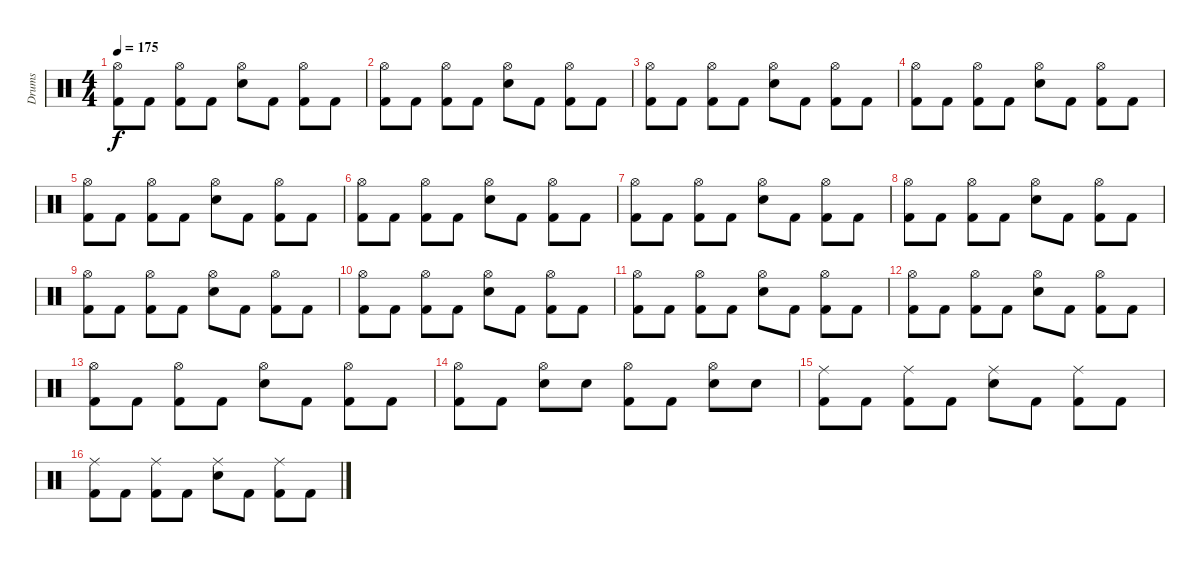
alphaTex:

\track ("Drums" "Drums") {instrument percussion}
\staff {score}
\articulation defaults
\ts (4 4)
\tempo 175
\clef neutral
\ks c
("Hi-Hat (open)" "Kick (hit) 2").8{dy f} "Kick (hit) 2".8 ("Hi-Hat (open)" "Kick (hit) 2").8 "Kick (hit) 2".8 ("Hi-Hat (open)" "Electric Snare (hit)").8 "Kick (hit) 2".8 ("Hi-Hat (open)" "Kick (hit) 2").8 "Kick (hit) 2".8 |
("Hi-Hat (open)" "Kick (hit) 2").8 "Kick (hit) 2".8 ("Hi-Hat (open)" "Kick (hit) 2").8 "Kick (hit) 2".8 ("Hi-Hat (open)" "Electric Snare (hit)").8 "Kick (hit) 2".8 ("Hi-Hat (open)" "Kick (hit) 2").8 "Kick (hit) 2".8 |
("Hi-Hat (open)" "Kick (hit) 2").8 "Kick (hit) 2".8 ("Hi-Hat (open)" "Kick (hit) 2").8 "Kick (hit) 2".8 ("Hi-Hat (open)" "Electric Snare (hit)").8 "Kick (hit) 2".8 ("Hi-Hat (open)" "Kick (hit) 2").8 "Kick (hit) 2".8 |
("Hi-Hat (open)" "Kick (hit) 2").8 "Kick (hit) 2".8 ("Hi-Hat (open)" "Kick (hit) 2").8 "Kick (hit) 2".8 ("Hi-Hat (open)" "Electric Snare (hit)").8 "Kick (hit) 2".8 ("Hi-Hat (open)" "Kick (hit) 2").8 "Kick (hit) 2".8 |
("Hi-Hat (open)" "Kick (hit) 2").8 "Kick (hit) 2".8 ("Hi-Hat (open)" "Kick (hit) 2").8 "Kick (hit) 2".8 ("Hi-Hat (open)" "Electric Snare (hit)").8 "Kick (hit) 2".8 ("Hi-Hat (open)" "Kick (hit) 2").8 "Kick (hit) 2".8 |
("Hi-Hat (open)" "Kick (hit) 2").8 "Kick (hit) 2".8 ("Hi-Hat (open)" "Kick (hit) 2").8 "Kick (hit) 2".8 ("Hi-Hat (open)" "Electric Snare (hit)").8 "Kick (hit) 2".8 ("Hi-Hat (open)" "Kick (hit) 2").8 "Kick (hit) 2".8 |
("Hi-Hat (open)" "Kick (hit) 2").8 "Kick (hit) 2".8 ("Hi-Hat (open)" "Kick (hit) 2").8 "Kick (hit) 2".8 ("Hi-Hat (open)" "Electric Snare (hit)").8 "Kick (hit) 2".8 ("Hi-Hat (open)" "Kick (hit) 2").8 "Kick (hit) 2".8 |
("Hi-Hat (open)" "Kick (hit) 2").8 "Kick (hit) 2".8 ("Hi-Hat (open)" "Kick (hit) 2").8 "Kick (hit) 2".8 ("Hi-Hat (open)" "Electric Snare (hit)").8 "Kick (hit) 2".8 ("Hi-Hat (open)" "Kick (hit) 2").8 "Kick (hit) 2".8 |
("Hi-Hat (open)" "Kick (hit) 2").8 "Kick (hit) 2".8 ("Hi-Hat (open)" "Kick (hit) 2").8 "Kick (hit) 2".8 ("Hi-Hat (open)" "Electric Snare (hit)").8 "Kick (hit) 2".8 ("Hi-Hat (open)" "Kick (hit) 2").8 "Kick (hit) 2".8 |
("Hi-Hat (open)" "Kick (hit) 2").8 "Kick (hit) 2".8 ("Hi-Hat (open)" "Kick (hit) 2").8 "Kick (hit) 2".8 ("Hi-Hat (open)" "Electric Snare (hit)").8 "Kick (hit) 2".8 ("Hi-Hat (open)" "Kick (hit) 2").8 "Kick (hit) 2".8 |
("Hi-Hat (open)" "Kick (hit) 2").8 "Kick (hit) 2".8 ("Hi-Hat (open)" "Kick (hit) 2").8 "Kick (hit) 2".8 ("Hi-Hat (open)" "Electric Snare (hit)").8 "Kick (hit) 2".8 ("Hi-Hat (open)" "Kick (hit) 2").8 "Kick (hit) 2".8 |
("Hi-Hat (open)" "Kick (hit) 2").8 "Kick (hit) 2".8 ("Hi-Hat (open)" "Kick (hit) 2").8 "Kick (hit) 2".8 ("Hi-Hat (open)" "Electric Snare (hit)").8 "Kick (hit) 2".8 ("Hi-Hat (open)" "Kick (hit) 2").8 "Kick (hit) 2".8 |
("Hi-Hat (open)" "Kick (hit) 2").8 "Kick (hit) 2".8 ("Hi-Hat (open)" "Kick (hit) 2").8 "Kick (hit) 2".8 ("Hi-Hat (open)" "Electric Snare (hit)").8 "Kick (hit) 2".8 ("Hi-Hat (open)" "Kick (hit) 2").8 "Kick (hit) 2".8 |
("Hi-Hat (open)" "Kick (hit) 2").8 "Kick (hit) 2".8 ("Hi-Hat (open)" "Electric Snare (hit)").8 "Electric Snare (hit)".8 ("Hi-Hat (open)" "Kick (hit) 2").8 "Kick (hit) 2".8 ("Hi-Hat (open)" "Electric Snare (hit)").8 "Electric Snare (hit)".8 |
("Ride (middle)" "Kick (hit) 2").8 "Kick (hit) 2".8 ("Ride (middle)" "Kick (hit) 2").8 "Kick (hit) 2".8 ("Ride (middle)" "Electric Snare (hit)").8 "Kick (hit) 2".8 ("Ride (middle)" "Kick (hit) 2").8 "Kick (hit) 2".8 |
("Ride (middle)" "Kick (hit) 2").8 "Kick (hit) 2".8 ("Ride (middle)" "Kick (hit) 2").8 "Kick (hit) 2".8 ("Ride (middle)" "Electric Snare (hit)").8 "Kick (hit) 2".8 ("Ride (middle)" "Kick (hit) 2").8 "Kick (hit) 2".8
